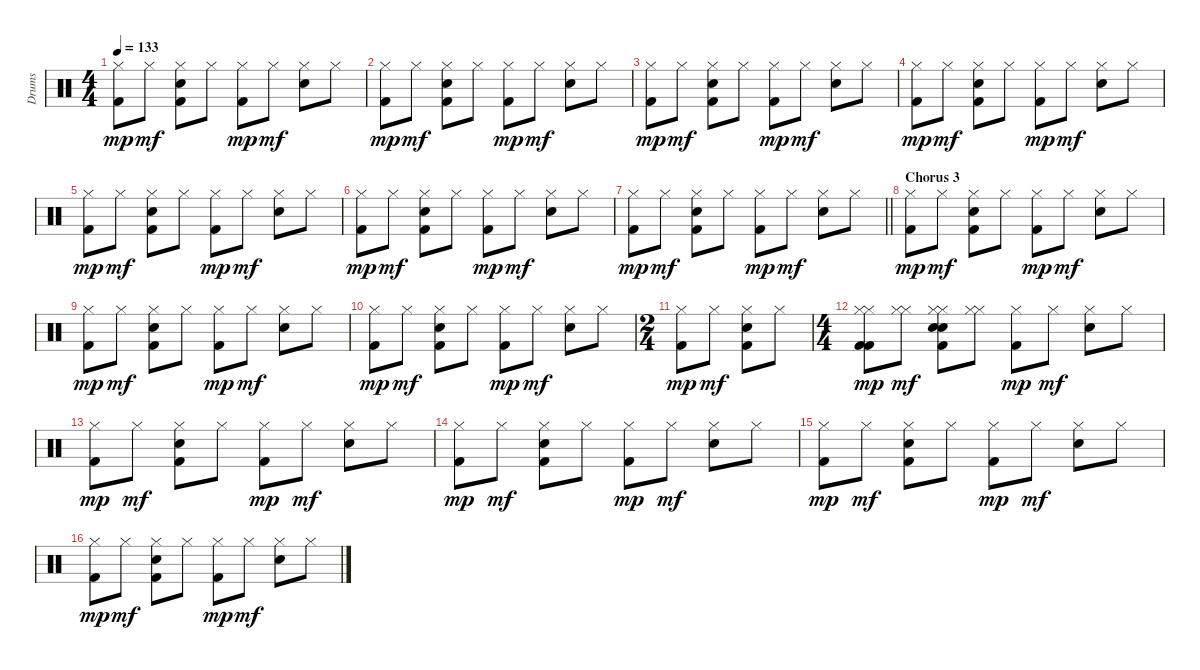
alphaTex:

\track ("Drums" "Drums") {instrument percussion}
\staff {score}
\articulation defaults
\ts (4 4)
\tempo 133
\clef neutral
\ks c
("Kick (hit) 2" "Hi-Hat (closed)").8{dy mp} "Hi-Hat (closed)".8{dy mf} ("Kick (hit) 2" "Snare (hit) 2" "Hi-Hat (closed)").8 "Hi-Hat (closed)".8 ("Kick (hit) 2" "Hi-Hat (closed)").8{dy mp} "Hi-Hat (closed)".8{dy mf} ("Snare (hit) 2" "Hi-Hat (closed)").8 "Hi-Hat (closed)".8 |
("Kick (hit) 2" "Hi-Hat (closed)").8{dy mp} "Hi-Hat (closed)".8{dy mf} ("Kick (hit) 2" "Snare (hit) 2" "Hi-Hat (closed)").8 "Hi-Hat (closed)".8 ("Kick (hit) 2" "Hi-Hat (closed)").8{dy mp} "Hi-Hat (closed)".8{dy mf} ("Snare (hit) 2" "Hi-Hat (closed)").8 "Hi-Hat (closed)".8 |
("Kick (hit) 2" "Hi-Hat (closed)").8{dy mp} "Hi-Hat (closed)".8{dy mf} ("Kick (hit) 2" "Snare (hit) 2" "Hi-Hat (closed)").8 "Hi-Hat (closed)".8 ("Kick (hit) 2" "Hi-Hat (closed)").8{dy mp} "Hi-Hat (closed)".8{dy mf} ("Snare (hit) 2" "Hi-Hat (closed)").8 "Hi-Hat (closed)".8 |
("Kick (hit) 2" "Hi-Hat (closed)").8{dy mp} "Hi-Hat (closed)".8{dy mf} ("Kick (hit) 2" "Snare (hit) 2" "Hi-Hat (closed)").8 "Hi-Hat (closed)".8 ("Kick (hit) 2" "Hi-Hat (closed)").8{dy mp} "Hi-Hat (closed)".8{dy mf} ("Snare (hit) 2" "Hi-Hat (closed)").8 "Hi-Hat (closed)".8 |
("Kick (hit) 2" "Hi-Hat (closed)").8{dy mp} "Hi-Hat (closed)".8{dy mf} ("Kick (hit) 2" "Snare (hit) 2" "Hi-Hat (closed)").8 "Hi-Hat (closed)".8 ("Kick (hit) 2" "Hi-Hat (closed)").8{dy mp} "Hi-Hat (closed)".8{dy mf} ("Snare (hit) 2" "Hi-Hat (closed)").8 "Hi-Hat (closed)".8 |
("Kick (hit) 2" "Hi-Hat (closed)").8{dy mp} "Hi-Hat (closed)".8{dy mf} ("Kick (hit) 2" "Snare (hit) 2" "Hi-Hat (closed)").8 "Hi-Hat (closed)".8 ("Kick (hit) 2" "Hi-Hat (closed)").8{dy mp} "Hi-Hat (closed)".8{dy mf} ("Snare (hit) 2" "Hi-Hat (closed)").8 "Hi-Hat (closed)".8 |
\barLineRight lightlight
("Kick (hit) 2" "Hi-Hat (closed)").8{dy mp} "Hi-Hat (closed)".8{dy mf} ("Kick (hit) 2" "Snare (hit) 2" "Hi-Hat (closed)").8 "Hi-Hat (closed)".8 ("Kick (hit) 2" "Hi-Hat (closed)").8{dy mp} "Hi-Hat (closed)".8{dy mf} ("Snare (hit) 2" "Hi-Hat (closed)").8 "Hi-Hat (closed)".8 |
\section ("" "Chorus 3")
("Kick (hit) 2" "Hi-Hat (closed)").8{dy mp} "Hi-Hat (closed)".8{dy mf} ("Kick (hit) 2" "Snare (hit) 2" "Hi-Hat (closed)").8 "Hi-Hat (closed)".8 ("Kick (hit) 2" "Hi-Hat (closed)").8{dy mp} "Hi-Hat (closed)".8{dy mf} ("Snare (hit) 2" "Hi-Hat (closed)").8 "Hi-Hat (closed)".8 |
("Kick (hit) 2" "Hi-Hat (closed)").8{dy mp} "Hi-Hat (closed)".8{dy mf} ("Kick (hit) 2" "Snare (hit) 2" "Hi-Hat (closed)").8 "Hi-Hat (closed)".8 ("Kick (hit) 2" "Hi-Hat (closed)").8{dy mp} "Hi-Hat (closed)".8{dy mf} ("Snare (hit) 2" "Hi-Hat (closed)").8 "Hi-Hat (closed)".8 |
("Kick (hit) 2" "Hi-Hat (closed)").8{dy mp} "Hi-Hat (closed)".8{dy mf} ("Kick (hit) 2" "Snare (hit) 2" "Hi-Hat (closed)").8 "Hi-Hat (closed)".8 ("Kick (hit) 2" "Hi-Hat (closed)").8{dy mp} "Hi-Hat (closed)".8{dy mf} ("Snare (hit) 2" "Hi-Hat (closed)").8 "Hi-Hat (closed)".8 |
\ts (2 4)
("Kick (hit) 2" "Hi-Hat (closed)").8{dy mp} "Hi-Hat (closed)".8{dy mf} ("Kick (hit) 2" "Snare (hit) 2" "Hi-Hat (closed)").8 "Hi-Hat (closed)".8 |
\ts (4 4)
("Kick (hit) 2" "Hi-Hat (closed)" "Kick (hit) 2" "Hi-Hat (closed)").8{dy mp} ("Hi-Hat (closed)" "Hi-Hat (closed)").8{dy mf} ("Snare (hit) 2" "Hi-Hat (closed)" "Kick (hit) 2" "Snare (hit) 2" "Hi-Hat (closed)").8 ("Hi-Hat (closed)" "Hi-Hat (closed)").8 ("Kick (hit) 2" "Hi-Hat (closed)").8{dy mp} "Hi-Hat (closed)".8{dy mf} ("Snare (hit) 2" "Hi-Hat (closed)").8 "Hi-Hat (closed)".8 |
("Kick (hit) 2" "Hi-Hat (closed)").8{dy mp} "Hi-Hat (closed)".8{dy mf} ("Kick (hit) 2" "Snare (hit) 2" "Hi-Hat (closed)").8 "Hi-Hat (closed)".8 ("Kick (hit) 2" "Hi-Hat (closed)").8{dy mp} "Hi-Hat (closed)".8{dy mf} ("Snare (hit) 2" "Hi-Hat (closed)").8 "Hi-Hat (closed)".8 |
("Kick (hit) 2" "Hi-Hat (closed)").8{dy mp} "Hi-Hat (closed)".8{dy mf} ("Kick (hit) 2" "Snare (hit) 2" "Hi-Hat (closed)").8 "Hi-Hat (closed)".8 ("Kick (hit) 2" "Hi-Hat (closed)").8{dy mp} "Hi-Hat (closed)".8{dy mf} ("Snare (hit) 2" "Hi-Hat (closed)").8 "Hi-Hat (closed)".8 |
("Kick (hit) 2" "Hi-Hat (closed)").8{dy mp} "Hi-Hat (closed)".8{dy mf} ("Kick (hit) 2" "Snare (hit) 2" "Hi-Hat (closed)").8 "Hi-Hat (closed)".8 ("Kick (hit) 2" "Hi-Hat (closed)").8{dy mp} "Hi-Hat (closed)".8{dy mf} ("Snare (hit) 2" "Hi-Hat (closed)").8 "Hi-Hat (closed)".8 |
("Kick (hit) 2" "Hi-Hat (closed)").8{dy mp} "Hi-Hat (closed)".8{dy mf} ("Kick (hit) 2" "Snare (hit) 2" "Hi-Hat (closed)").8 "Hi-Hat (closed)".8 ("Kick (hit) 2" "Hi-Hat (closed)").8{dy mp} "Hi-Hat (closed)".8{dy mf} ("Snare (hit) 2" "Hi-Hat (closed)").8 "Hi-Hat (closed)".8
